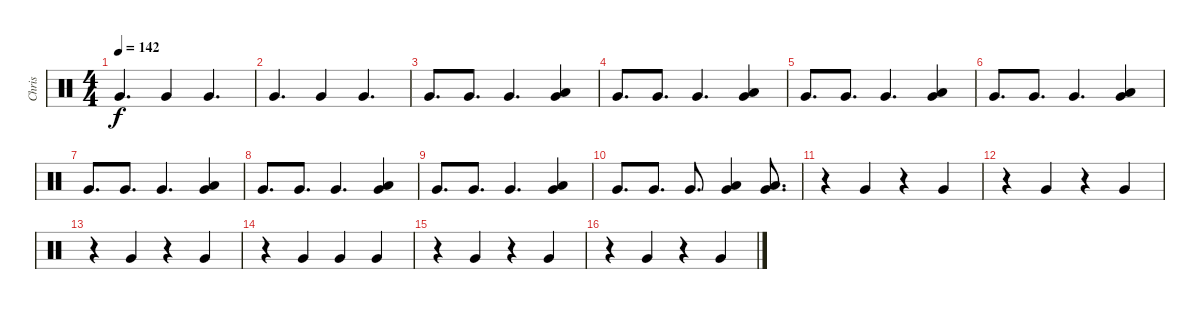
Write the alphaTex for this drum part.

\track ("Chris" "Chris") {instrument percussion}
\staff {score}
\articulation defaults
\ts (4 4)
\tempo 142
\clef neutral
\ks c "Very Low Tom (hit)".4{d dy f} "Very Low Tom (hit)".4 "Very Low Tom (hit)".4{d}
|
"Very Low Tom (hit)".4{d} "Very Low Tom (hit)".4 "Very Low Tom (hit)".4{d} |
"Very Low Tom (hit)".8{d} "Very Low Tom (hit)".8{d} "Very Low Tom (hit)".4{d} ("Very Low Tom (hit)" "Low Floor Tom (hit)").4 |
"Very Low Tom (hit)".8{d} "Very Low Tom (hit)".8{d} "Very Low Tom (hit)".4{d} ("Very Low Tom (hit)" "Low Floor Tom (hit)").4 |
"Very Low Tom (hit)".8{d} "Very Low Tom (hit)".8{d} "Very Low Tom (hit)".4{d} ("Very Low Tom (hit)" "Low Floor Tom (hit)").4 |
"Very Low Tom (hit)".8{d} "Very Low Tom (hit)".8{d} "Very Low Tom (hit)".4{d} ("Very Low Tom (hit)" "Low Floor Tom (hit)").4 |
"Very Low Tom (hit)".8{d} "Very Low Tom (hit)".8{d} "Very Low Tom (hit)".4{d} ("Very Low Tom (hit)" "Low Floor Tom (hit)").4 |
"Very Low Tom (hit)".8{d} "Very Low Tom (hit)".8{d} "Very Low Tom (hit)".4{d} ("Very Low Tom (hit)" "Low Floor Tom (hit)").4 |
"Very Low Tom (hit)".8{d} "Very Low Tom (hit)".8{d} "Very Low Tom (hit)".4{d} ("Very Low Tom (hit)" "Low Floor Tom (hit)").4 |
"Very Low Tom (hit)".8{d} "Very Low Tom (hit)".8{d} "Very Low Tom (hit)".8{d} ("Very Low Tom (hit)" "Low Floor Tom (hit)").4 ("Very Low Tom (hit)" "Low Floor Tom (hit)").8{d} |
r.4 "Very Low Tom (hit)".4 r.4 "Very Low Tom (hit)".4 |
r.4 "Very Low Tom (hit)".4 r.4 "Very Low Tom (hit)".4 |
r.4 "Very Low Tom (hit)".4 r.4 "Very Low Tom (hit)".4 |
r.4 "Very Low Tom (hit)".4 "Very Low Tom (hit)".4 "Very Low Tom (hit)".4 |
r.4 "Very Low Tom (hit)".4 r.4 "Very Low Tom (hit)".4 |
r.4 "Very Low Tom (hit)".4 r.4 "Very Low Tom (hit)".4
